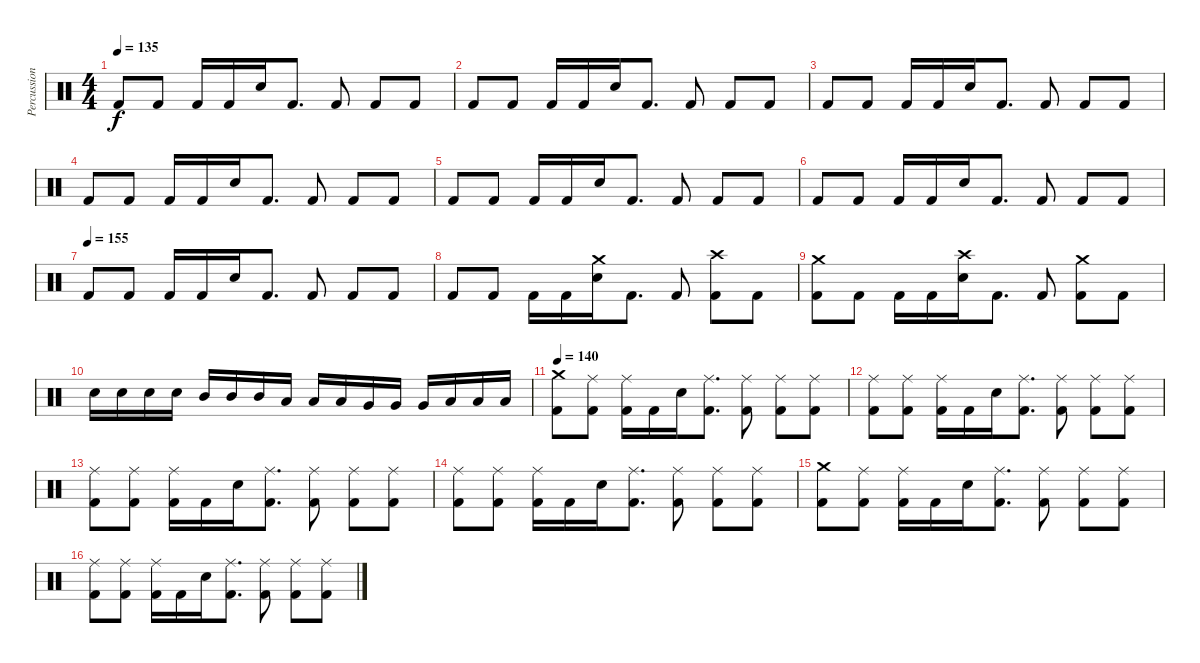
\track ("Percussion" "Percussion") {instrument percussion}
\staff {score}
\articulation defaults
\ts (4 4)
\tempo 135
\clef neutral
\ks c "Kick (hit) 2".8{dy f} "Kick (hit) 2".8 "Kick (hit) 2".16 "Kick (hit) 2".16 "Electric Snare (hit)".16 "Kick (hit) 2".8{d} "Kick (hit) 2".8 "Kick (hit) 2".8 "Kick (hit) 2".8
|
"Kick (hit) 2".8 "Kick (hit) 2".8 "Kick (hit) 2".16 "Kick (hit) 2".16 "Electric Snare (hit)".16 "Kick (hit) 2".8{d} "Kick (hit) 2".8 "Kick (hit) 2".8 "Kick (hit) 2".8 |
"Kick (hit) 2".8 "Kick (hit) 2".8 "Kick (hit) 2".16 "Kick (hit) 2".16 "Electric Snare (hit)".16 "Kick (hit) 2".8{d} "Kick (hit) 2".8 "Kick (hit) 2".8 "Kick (hit) 2".8 |
"Kick (hit) 2".8 "Kick (hit) 2".8 "Kick (hit) 2".16 "Kick (hit) 2".16 "Electric Snare (hit)".16 "Kick (hit) 2".8{d} "Kick (hit) 2".8 "Kick (hit) 2".8 "Kick (hit) 2".8 |
"Kick (hit) 2".8 "Kick (hit) 2".8 "Kick (hit) 2".16 "Kick (hit) 2".16 "Electric Snare (hit)".16 "Kick (hit) 2".8{d} "Kick (hit) 2".8 "Kick (hit) 2".8 "Kick (hit) 2".8 |
"Kick (hit) 2".8 "Kick (hit) 2".8 "Kick (hit) 2".16 "Kick (hit) 2".16 "Electric Snare (hit)".16 "Kick (hit) 2".8{d} "Kick (hit) 2".8 "Kick (hit) 2".8 "Kick (hit) 2".8 |
\tempo 150
\tempo (155)
"Kick (hit) 2".8 "Kick (hit) 2".8 "Kick (hit) 2".16 "Kick (hit) 2".16 "Electric Snare (hit)".16 "Kick (hit) 2".8{d} "Kick (hit) 2".8 "Kick (hit) 2".8 "Kick (hit) 2".8 |
"Kick (hit) 2".8 "Kick (hit) 2".8 "Kick (hit) 2".16 "Kick (hit) 2".16 ("Crash medium (hit)" "Electric Snare (hit)").16 "Kick (hit) 2".8{d} "Kick (hit) 2".8 ("Crash high (hit)" "Kick (hit) 2").8 "Kick (hit) 2".8 |
("Crash medium (hit)" "Kick (hit) 2").8 "Kick (hit) 2".8 "Kick (hit) 2".16 "Kick (hit) 2".16 ("Crash high (hit)" "Electric Snare (hit)").16 "Kick (hit) 2".8{d} "Kick (hit) 2".8 ("Crash medium (hit)" "Kick (hit) 2").8 "Kick (hit) 2".8 |
"Electric Snare (hit)".16 "Electric Snare (hit)".16 "Electric Snare (hit)".16 "Electric Snare (hit)".16 "Mid Tom (hit)".16 "Mid Tom (hit)".16 "Mid Tom (hit)".16 "Low Tom (hit)".16 "Low Tom (hit)".16 "Low Tom (hit)".16 "Very Low Tom (hit)".16 "Very Low Tom (hit)".16 "Very Low Tom (hit)".16 "Low Floor Tom (hit)".16 "Low Floor Tom (hit)".16 "Low Floor Tom (hit)".16 |
\tempo 140
("Crash medium (hit)" "Kick (hit) 2").8 ("Ride (middle)" "Kick (hit) 2").8 ("Ride (middle)" "Kick (hit) 2").16 "Kick (hit) 2".16 "Electric Snare (hit)".16 ("Ride (middle)" "Kick (hit) 2").8{d} ("Ride (middle)" "Kick (hit) 2").8 ("Ride (middle)" "Kick (hit) 2").8 ("Ride (middle)" "Kick (hit) 2").8 |
("Ride (middle)" "Kick (hit) 2").8 ("Ride (middle)" "Kick (hit) 2").8 ("Ride (middle)" "Kick (hit) 2").16 "Kick (hit) 2".16 "Electric Snare (hit)".16 ("Ride (middle)" "Kick (hit) 2").8{d} ("Ride (middle)" "Kick (hit) 2").8 ("Ride (middle)" "Kick (hit) 2").8 ("Ride (middle)" "Kick (hit) 2").8 |
("Ride (middle)" "Kick (hit) 2").8 ("Ride (middle)" "Kick (hit) 2").8 ("Ride (middle)" "Kick (hit) 2").16 "Kick (hit) 2".16 "Electric Snare (hit)".16 ("Ride (middle)" "Kick (hit) 2").8{d} ("Ride (middle)" "Kick (hit) 2").8 ("Ride (middle)" "Kick (hit) 2").8 ("Ride (middle)" "Kick (hit) 2").8 |
("Ride (middle)" "Kick (hit) 2").8 ("Ride (middle)" "Kick (hit) 2").8 ("Ride (middle)" "Kick (hit) 2").16 "Kick (hit) 2".16 "Electric Snare (hit)".16 ("Ride (middle)" "Kick (hit) 2").8{d} ("Ride (middle)" "Kick (hit) 2").8 ("Ride (middle)" "Kick (hit) 2").8 ("Ride (middle)" "Kick (hit) 2").8 |
("Crash medium (hit)" "Kick (hit) 2").8 ("Ride (middle)" "Kick (hit) 2").8 ("Ride (middle)" "Kick (hit) 2").16 "Kick (hit) 2".16 "Electric Snare (hit)".16 ("Ride (middle)" "Kick (hit) 2").8{d} ("Ride (middle)" "Kick (hit) 2").8 ("Ride (middle)" "Kick (hit) 2").8 ("Ride (middle)" "Kick (hit) 2").8 |
("Ride (middle)" "Kick (hit) 2").8 ("Ride (middle)" "Kick (hit) 2").8 ("Ride (middle)" "Kick (hit) 2").16 "Kick (hit) 2".16 "Electric Snare (hit)".16 ("Ride (middle)" "Kick (hit) 2").8{d} ("Ride (middle)" "Kick (hit) 2").8 ("Ride (middle)" "Kick (hit) 2").8 ("Ride (middle)" "Kick (hit) 2").8
